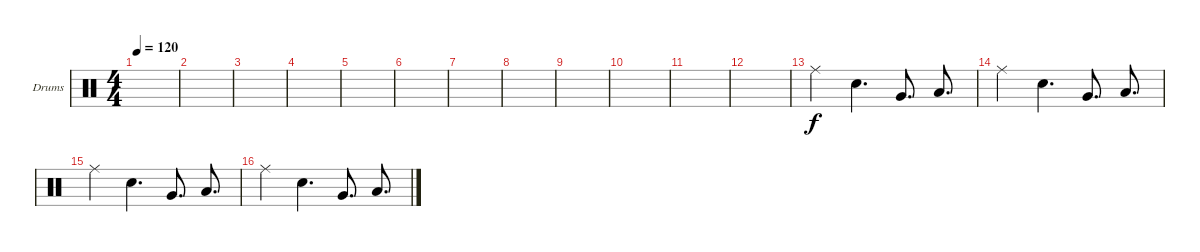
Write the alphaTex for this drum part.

\defaultSystemsLayout 4
\bracketExtendMode groupsimilarinstruments
\firstSystemTrackNameOrientation horizontal
\otherSystemsTrackNameOrientation horizontal
\track ("Drumkit" "Drums") {instrument percussion}
\staff {score}
\articulation defaults
\ts (4 4)
\tempo 120
\clef neutral
\ks c
|
|
|
|
|
|
|
|
|
|
|
|
"Ride (middle)".4 "Snare (hit) 2".4{d} "Very Low Tom (hit)".8{d} "Low Tom (hit)".8{d} |
"Ride (middle)".4 "Snare (hit) 2".4{d} "Very Low Tom (hit)".8{d} "Low Tom (hit)".8{d} |
"Ride (middle)".4 "Snare (hit) 2".4{d} "Very Low Tom (hit)".8{d} "Low Tom (hit)".8{d} |
"Ride (middle)".4 "Snare (hit) 2".4{d} "Very Low Tom (hit)".8{d} "Low Tom (hit)".8{d}
